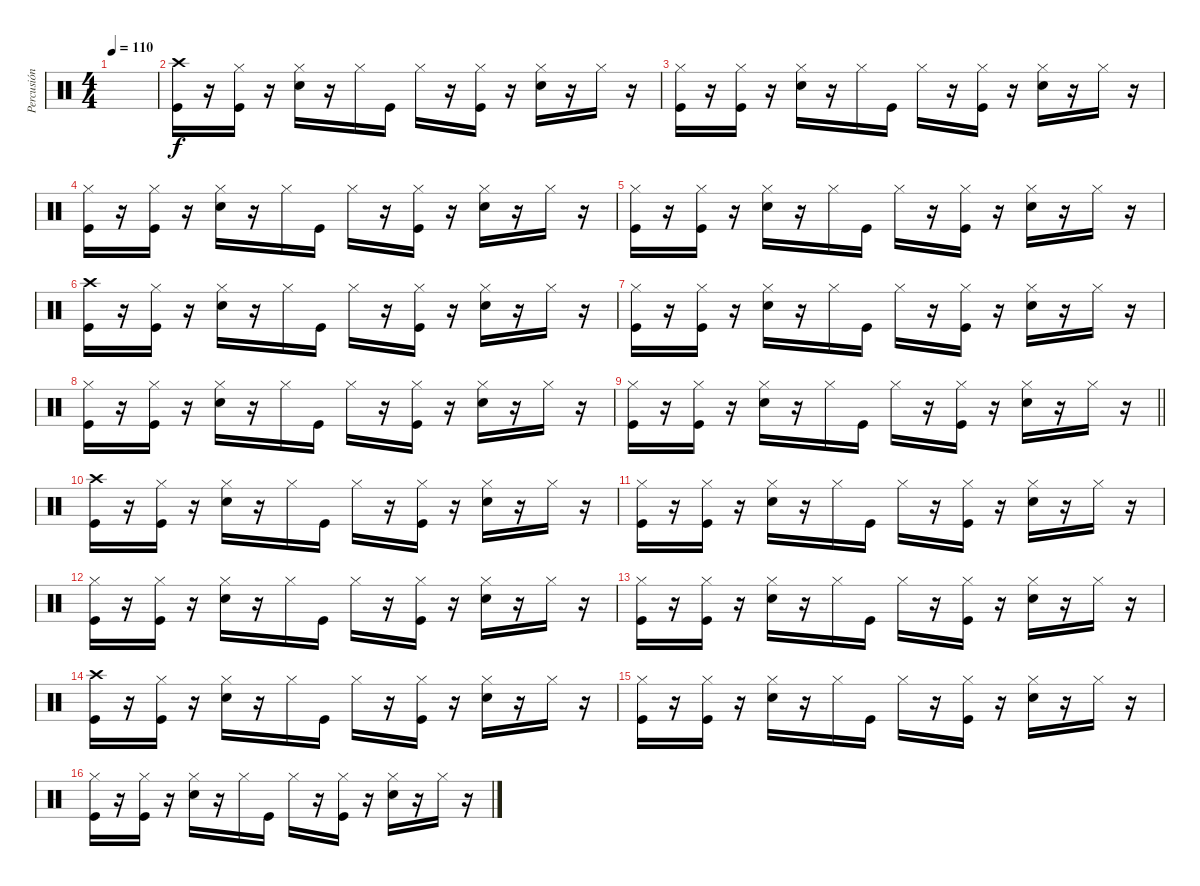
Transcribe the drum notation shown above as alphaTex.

\track ("Percusión" "Percusión") {instrument percussion}
\staff {score}
\articulation defaults
\ts (4 4)
\tempo 110
\clef neutral
\ks c
|
("Crash high (hit)" "Kick (hit)").16 r.16 ("Hi-Hat (closed)" "Kick (hit)").16 r.16 ("Hi-Hat (closed)" "Electric Snare (hit)").16 r.16 "Hi-Hat (closed)".16 "Kick (hit)".16 "Hi-Hat (closed)".16 r.16 ("Hi-Hat (closed)" "Kick (hit)").16 r.16 ("Hi-Hat (closed)" "Electric Snare (hit)").16 r.16 "Hi-Hat (closed)".16 r.16 |
("Hi-Hat (closed)" "Kick (hit)").16 r.16 ("Hi-Hat (closed)" "Kick (hit)").16 r.16 ("Hi-Hat (closed)" "Electric Snare (hit)").16 r.16 "Hi-Hat (closed)".16 "Kick (hit)".16 "Hi-Hat (closed)".16 r.16 ("Hi-Hat (closed)" "Kick (hit)").16 r.16 ("Hi-Hat (closed)" "Electric Snare (hit)").16 r.16 "Hi-Hat (closed)".16 r.16 |
("Hi-Hat (closed)" "Kick (hit)").16 r.16 ("Hi-Hat (closed)" "Kick (hit)").16 r.16 ("Hi-Hat (closed)" "Electric Snare (hit)").16 r.16 "Hi-Hat (closed)".16 "Kick (hit)".16 "Hi-Hat (closed)".16 r.16 ("Hi-Hat (closed)" "Kick (hit)").16 r.16 ("Hi-Hat (closed)" "Electric Snare (hit)").16 r.16 "Hi-Hat (closed)".16 r.16 |
("Hi-Hat (closed)" "Kick (hit)").16 r.16 ("Hi-Hat (closed)" "Kick (hit)").16 r.16 ("Hi-Hat (closed)" "Electric Snare (hit)").16 r.16 "Hi-Hat (closed)".16 "Kick (hit)".16 "Hi-Hat (closed)".16 r.16 ("Hi-Hat (closed)" "Kick (hit)").16 r.16 ("Hi-Hat (closed)" "Electric Snare (hit)").16 r.16 "Hi-Hat (closed)".16 r.16 |
("Crash high (hit)" "Kick (hit)").16 r.16 ("Hi-Hat (closed)" "Kick (hit)").16 r.16 ("Hi-Hat (closed)" "Electric Snare (hit)").16 r.16 "Hi-Hat (closed)".16 "Kick (hit)".16 "Hi-Hat (closed)".16 r.16 ("Hi-Hat (closed)" "Kick (hit)").16 r.16 ("Hi-Hat (closed)" "Electric Snare (hit)").16 r.16 "Hi-Hat (closed)".16 r.16 |
("Hi-Hat (closed)" "Kick (hit)").16 r.16 ("Hi-Hat (closed)" "Kick (hit)").16 r.16 ("Hi-Hat (closed)" "Electric Snare (hit)").16 r.16 "Hi-Hat (closed)".16 "Kick (hit)".16 "Hi-Hat (closed)".16 r.16 ("Hi-Hat (closed)" "Kick (hit)").16 r.16 ("Hi-Hat (closed)" "Electric Snare (hit)").16 r.16 "Hi-Hat (closed)".16 r.16 |
("Hi-Hat (closed)" "Kick (hit)").16 r.16 ("Hi-Hat (closed)" "Kick (hit)").16 r.16 ("Hi-Hat (closed)" "Electric Snare (hit)").16 r.16 "Hi-Hat (closed)".16 "Kick (hit)".16 "Hi-Hat (closed)".16 r.16 ("Hi-Hat (closed)" "Kick (hit)").16 r.16 ("Hi-Hat (closed)" "Electric Snare (hit)").16 r.16 "Hi-Hat (closed)".16 r.16 |
\barLineRight lightlight
("Hi-Hat (closed)" "Kick (hit)").16 r.16 ("Hi-Hat (closed)" "Kick (hit)").16 r.16 ("Hi-Hat (closed)" "Electric Snare (hit)").16 r.16 "Hi-Hat (closed)".16 "Kick (hit)".16 "Hi-Hat (closed)".16 r.16 ("Hi-Hat (closed)" "Kick (hit)").16 r.16 ("Hi-Hat (closed)" "Electric Snare (hit)").16 r.16 "Hi-Hat (closed)".16 r.16 |
("Crash high (hit)" "Kick (hit)").16 r.16 ("Hi-Hat (closed)" "Kick (hit)").16 r.16 ("Hi-Hat (closed)" "Electric Snare (hit)").16 r.16 "Hi-Hat (closed)".16 "Kick (hit)".16 "Hi-Hat (closed)".16 r.16 ("Hi-Hat (closed)" "Kick (hit)").16 r.16 ("Hi-Hat (closed)" "Electric Snare (hit)").16 r.16 "Hi-Hat (closed)".16 r.16 |
("Hi-Hat (closed)" "Kick (hit)").16 r.16 ("Hi-Hat (closed)" "Kick (hit)").16 r.16 ("Hi-Hat (closed)" "Electric Snare (hit)").16 r.16 "Hi-Hat (closed)".16 "Kick (hit)".16 "Hi-Hat (closed)".16 r.16 ("Hi-Hat (closed)" "Kick (hit)").16 r.16 ("Hi-Hat (closed)" "Electric Snare (hit)").16 r.16 "Hi-Hat (closed)".16 r.16 |
("Hi-Hat (closed)" "Kick (hit)").16 r.16 ("Hi-Hat (closed)" "Kick (hit)").16 r.16 ("Hi-Hat (closed)" "Electric Snare (hit)").16 r.16 "Hi-Hat (closed)".16 "Kick (hit)".16 "Hi-Hat (closed)".16 r.16 ("Hi-Hat (closed)" "Kick (hit)").16 r.16 ("Hi-Hat (closed)" "Electric Snare (hit)").16 r.16 "Hi-Hat (closed)".16 r.16 |
("Hi-Hat (closed)" "Kick (hit)").16 r.16 ("Hi-Hat (closed)" "Kick (hit)").16 r.16 ("Hi-Hat (closed)" "Electric Snare (hit)").16 r.16 "Hi-Hat (closed)".16 "Kick (hit)".16 "Hi-Hat (closed)".16 r.16 ("Hi-Hat (closed)" "Kick (hit)").16 r.16 ("Hi-Hat (closed)" "Electric Snare (hit)").16 r.16 "Hi-Hat (closed)".16 r.16 |
("Crash high (hit)" "Kick (hit)").16 r.16 ("Hi-Hat (closed)" "Kick (hit)").16 r.16 ("Hi-Hat (closed)" "Electric Snare (hit)").16 r.16 "Hi-Hat (closed)".16 "Kick (hit)".16 "Hi-Hat (closed)".16 r.16 ("Hi-Hat (closed)" "Kick (hit)").16 r.16 ("Hi-Hat (closed)" "Electric Snare (hit)").16 r.16 "Hi-Hat (closed)".16 r.16 |
("Hi-Hat (closed)" "Kick (hit)").16 r.16 ("Hi-Hat (closed)" "Kick (hit)").16 r.16 ("Hi-Hat (closed)" "Electric Snare (hit)").16 r.16 "Hi-Hat (closed)".16 "Kick (hit)".16 "Hi-Hat (closed)".16 r.16 ("Hi-Hat (closed)" "Kick (hit)").16 r.16 ("Hi-Hat (closed)" "Electric Snare (hit)").16 r.16 "Hi-Hat (closed)".16 r.16 |
("Hi-Hat (closed)" "Kick (hit)").16 r.16 ("Hi-Hat (closed)" "Kick (hit)").16 r.16 ("Hi-Hat (closed)" "Electric Snare (hit)").16 r.16 "Hi-Hat (closed)".16 "Kick (hit)".16 "Hi-Hat (closed)".16 r.16 ("Hi-Hat (closed)" "Kick (hit)").16 r.16 ("Hi-Hat (closed)" "Electric Snare (hit)").16 r.16 "Hi-Hat (closed)".16 r.16
